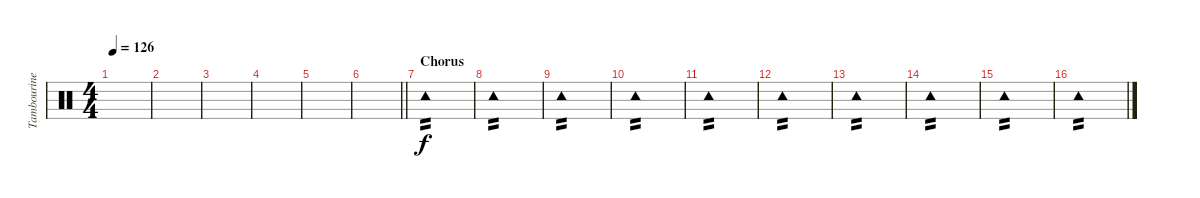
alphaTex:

\track ("Tambourine" "Tambourine") {instrument percussion}
\staff {score}
\articulation defaults
\ts (4 4)
\tempo 126
\clef neutral
\ks c
|
|
|
|
|
\barLineRight lightlight
|
\section ("" "Chorus")
"Tambourine (hit)".1{tp 2} |
"Tambourine (hit)".1{tp 2} |
"Tambourine (hit)".1{tp 2} |
"Tambourine (hit)".1{tp 2} |
"Tambourine (hit)".1{tp 2} |
"Tambourine (hit)".1{tp 2} |
"Tambourine (hit)".1{tp 2} |
"Tambourine (hit)".1{tp 2} |
"Tambourine (hit)".1{tp 2} |
"Tambourine (hit)".1{tp 2}
